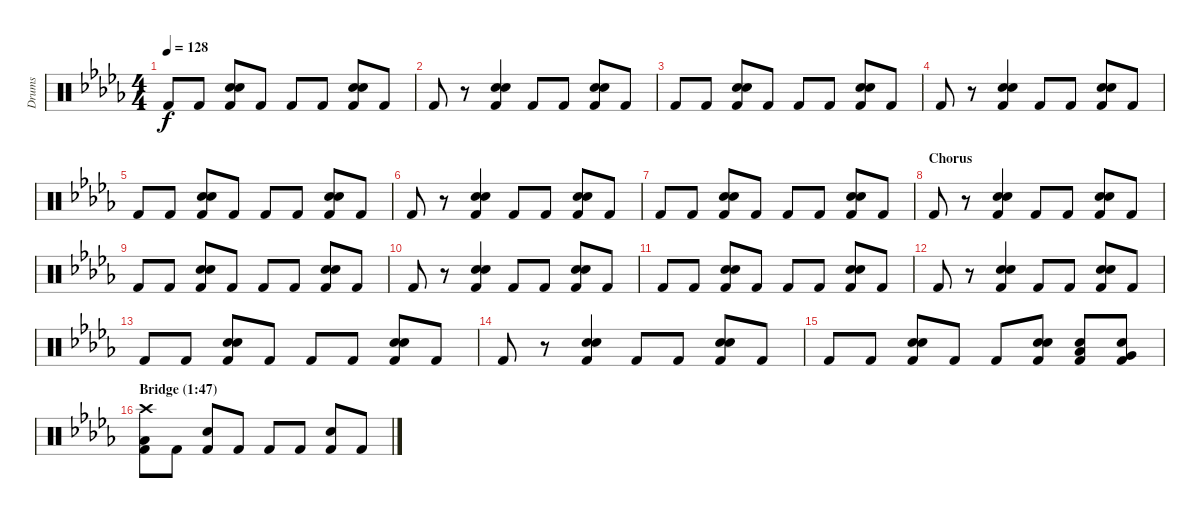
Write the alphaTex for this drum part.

\track ("Drums" "Drums") {instrument percussion}
\staff {score}
\articulation defaults
\ts (4 4)
\tempo 128
\clef neutral
\ks bbminor "Kick (hit) 2".8{dy f} "Kick (hit) 2".8
("Kick (hit) 2" "Electric Snare (hit)" "Electric Snare (hit)").8 "Kick (hit) 2".8 "Kick (hit) 2".8 "Kick (hit) 2".8 ("Kick (hit) 2" "Electric Snare (hit)" "Electric Snare (hit)").8 "Kick (hit) 2".8 |
"Kick (hit) 2".8 r.8 ("Kick (hit) 2" "Electric Snare (hit)" "Electric Snare (hit)").4 "Kick (hit) 2".8 "Kick (hit) 2".8 ("Kick (hit) 2" "Electric Snare (hit)" "Electric Snare (hit)").8 "Kick (hit) 2".8 |
"Kick (hit) 2".8 "Kick (hit) 2".8 ("Kick (hit) 2" "Electric Snare (hit)" "Electric Snare (hit)").8 "Kick (hit) 2".8 "Kick (hit) 2".8 "Kick (hit) 2".8 ("Kick (hit) 2" "Electric Snare (hit)" "Electric Snare (hit)").8 "Kick (hit) 2".8 |
"Kick (hit) 2".8 r.8 ("Kick (hit) 2" "Electric Snare (hit)" "Electric Snare (hit)").4 "Kick (hit) 2".8 "Kick (hit) 2".8 ("Kick (hit) 2" "Electric Snare (hit)" "Electric Snare (hit)").8 "Kick (hit) 2".8 |
"Kick (hit) 2".8 "Kick (hit) 2".8 ("Kick (hit) 2" "Electric Snare (hit)" "Electric Snare (hit)").8 "Kick (hit) 2".8 "Kick (hit) 2".8 "Kick (hit) 2".8 ("Kick (hit) 2" "Electric Snare (hit)" "Electric Snare (hit)").8 "Kick (hit) 2".8 |
"Kick (hit) 2".8 r.8 ("Kick (hit) 2" "Electric Snare (hit)" "Electric Snare (hit)").4 "Kick (hit) 2".8 "Kick (hit) 2".8 ("Kick (hit) 2" "Electric Snare (hit)" "Electric Snare (hit)").8 "Kick (hit) 2".8 |
"Kick (hit) 2".8 "Kick (hit) 2".8 ("Kick (hit) 2" "Electric Snare (hit)" "Electric Snare (hit)").8 "Kick (hit) 2".8 "Kick (hit) 2".8 "Kick (hit) 2".8 ("Kick (hit) 2" "Electric Snare (hit)" "Electric Snare (hit)").8 "Kick (hit) 2".8 |
\section ("" "Chorus")
"Kick (hit) 2".8 r.8 ("Kick (hit) 2" "Electric Snare (hit)" "Electric Snare (hit)").4 "Kick (hit) 2".8 "Kick (hit) 2".8 ("Kick (hit) 2" "Electric Snare (hit)" "Electric Snare (hit)").8 "Kick (hit) 2".8 |
"Kick (hit) 2".8 "Kick (hit) 2".8 ("Kick (hit) 2" "Electric Snare (hit)" "Electric Snare (hit)").8 "Kick (hit) 2".8 "Kick (hit) 2".8 "Kick (hit) 2".8 ("Kick (hit) 2" "Electric Snare (hit)" "Electric Snare (hit)").8 "Kick (hit) 2".8 |
"Kick (hit) 2".8 r.8 ("Kick (hit) 2" "Electric Snare (hit)" "Electric Snare (hit)").4 "Kick (hit) 2".8 "Kick (hit) 2".8 ("Kick (hit) 2" "Electric Snare (hit)" "Electric Snare (hit)").8 "Kick (hit) 2".8 |
"Kick (hit) 2".8 "Kick (hit) 2".8 ("Kick (hit) 2" "Electric Snare (hit)" "Electric Snare (hit)").8 "Kick (hit) 2".8 "Kick (hit) 2".8 "Kick (hit) 2".8 ("Kick (hit) 2" "Electric Snare (hit)" "Electric Snare (hit)").8 "Kick (hit) 2".8 |
"Kick (hit) 2".8 r.8 ("Kick (hit) 2" "Electric Snare (hit)" "Electric Snare (hit)").4 "Kick (hit) 2".8 "Kick (hit) 2".8 ("Kick (hit) 2" "Electric Snare (hit)" "Electric Snare (hit)").8 "Kick (hit) 2".8 |
"Kick (hit) 2".8 "Kick (hit) 2".8 ("Kick (hit) 2" "Electric Snare (hit)" "Electric Snare (hit)").8 "Kick (hit) 2".8 "Kick (hit) 2".8 "Kick (hit) 2".8 ("Kick (hit) 2" "Electric Snare (hit)" "Electric Snare (hit)").8 "Kick (hit) 2".8 |
"Kick (hit) 2".8 r.8 ("Kick (hit) 2" "Electric Snare (hit)" "Electric Snare (hit)").4 "Kick (hit) 2".8 "Kick (hit) 2".8 ("Kick (hit) 2" "Electric Snare (hit)" "Electric Snare (hit)").8 "Kick (hit) 2".8 |
"Kick (hit) 2".8 "Kick (hit) 2".8 ("Kick (hit) 2" "Electric Snare (hit)" "Electric Snare (hit)").8 "Kick (hit) 2".8 "Kick (hit) 2".8 ("Kick (hit) 2" "Electric Snare (hit)" "Electric Snare (hit)").8 ("Kick (hit) 2" "Low Tom (hit)" "Electric Snare (hit)").8 ("Kick (hit) 2" "Very Low Tom (hit)" "Electric Snare (hit)").8 |
\section ("" "Bridge (1:47)")
("Kick (hit) 2" "Low Floor Tom (hit)" "Crash high (hit)").8 "Kick (hit) 2".8 ("Kick (hit) 2" "Electric Snare (hit)").8 "Kick (hit) 2".8 "Kick (hit) 2".8 "Kick (hit) 2".8 ("Kick (hit) 2" "Electric Snare (hit)").8 "Kick (hit) 2".8
